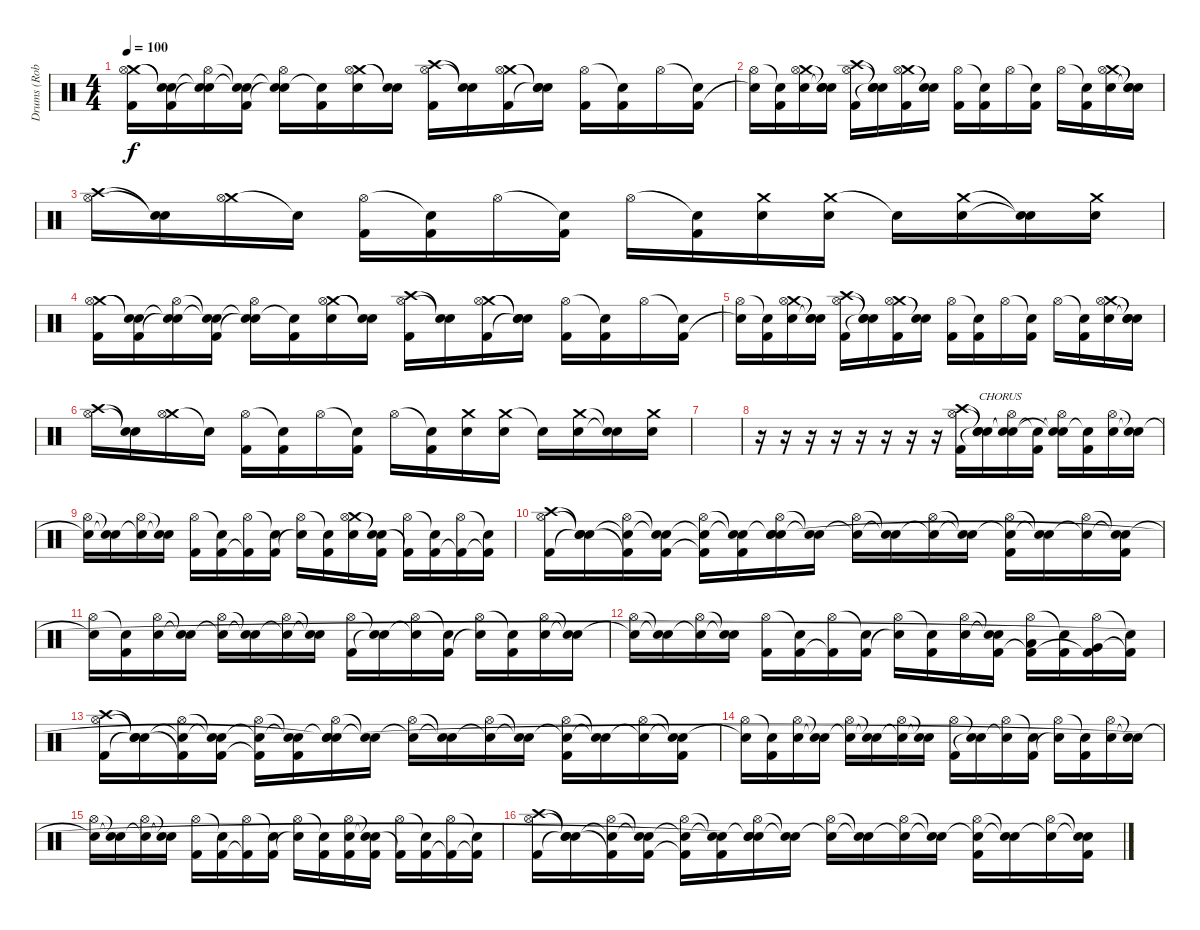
\track ("Drums (Rob Bourdon)" "Drums (Rob") {instrument percussion}
\staff {score}
\articulation defaults
\ts (4 4)
\tempo 100
\clef neutral
\ks c
("Crash medium (hit)" "Hi-Hat (open)" "Kick (hit) 2").16{dy f} ("Snare (hit)"{t} "Snare (hit)"{t} "Kick (hit) 2").16 ("Snare (hit)"{t} "Hi-Hat (open)" "Snare (hit)"{t}).16 ("Snare (hit)"{t} "Snare (hit)"{t} "Kick (hit) 2").16 ("Snare (hit)"{t} "Hi-Hat (open)" "Snare (hit)"{t}).16 ("Snare (hit)"{t} "Kick (hit) 2").16 ("Crash medium (hit)" "Hi-Hat (open)" "Electric Snare (hit)").16 ("Snare (hit)"{t} "Snare (hit)"{t}).16 ("Crash high (hit)" "Hi-Hat (open)" "Kick (hit) 2").16 ("Snare (hit)"{t} "Snare (hit)"{t}).16 ("Crash medium (hit)" "Hi-Hat (open)" "Kick (hit) 2").16 ("Snare (hit)"{t} "Snare (hit)"{t} "Snare (hit)"{t}).16 ("Hi-Hat (open)" "Kick (hit) 2").16 ("Snare (hit)"{t} "Kick (hit) 2").16 "Hi-Hat (open)".16 ("Snare (hit)"{t} "Kick (hit) 2").16 |
("Hi-Hat (open)" "Snare (hit)"{t}).16 ("Snare (hit)"{t} "Kick (hit) 2").16 ("Crash medium (hit)" "Hi-Hat (open)" "Electric Snare (hit)").16 ("Snare (hit)"{t} "Snare (hit)"{t} "Snare (hit)"{t}).16 ("Crash high (hit)" "Hi-Hat (open)" "Kick (hit) 2").16 ("Snare (hit)"{t} "Snare (hit)"{t} "Snare (hit)"{t}).16 ("Crash medium (hit)" "Hi-Hat (open)" "Kick (hit) 2").16 ("Snare (hit)"{t} "Snare (hit)"{t}).16 ("Hi-Hat (open)" "Kick (hit) 2").16 ("Snare (hit)"{t} "Kick (hit) 2").16 "Hi-Hat (open)".16 ("Snare (hit)"{t} "Kick (hit) 2").16 "Hi-Hat (open)".16 ("Snare (hit)"{t} "Kick (hit) 2").16 ("Crash medium (hit)" "Hi-Hat (open)" "Electric Snare (hit)").16 ("Snare (hit)"{t} "Snare (hit)"{t} "Snare (hit)"{t}).16 |
("Crash high (hit)" "Hi-Hat (open)").16 ("Snare (hit)"{t} "Snare (hit)"{t}).16 ("Crash medium (hit)" "Hi-Hat (open)").16 "Snare (hit)"{t}.16 ("Hi-Hat (open)" "Kick (hit) 2").16 ("Snare (hit)"{t} "Kick (hit) 2").16 "Hi-Hat (open)".16 ("Snare (hit)"{t} "Kick (hit) 2").16 "Hi-Hat (open)".16 ("Snare (hit)"{t} "Kick (hit) 2").16 ("Crash medium (hit)" "Electric Snare (hit)").16 ("Crash medium (hit)" "Electric Snare (hit)").16 "Snare (hit)"{t}.16 ("Crash medium (hit)" "Electric Snare (hit)").16 ("Snare (hit)"{t} "Snare (hit)"{t}).16 ("Crash medium (hit)" "Electric Snare (hit)").16 |
("Crash medium (hit)" "Hi-Hat (open)" "Kick (hit) 2").16 ("Snare (hit)"{t} "Snare (hit)"{t} "Kick (hit) 2").16 ("Snare (hit)"{t} "Hi-Hat (open)" "Snare (hit)"{t}).16 ("Snare (hit)"{t} "Snare (hit)"{t} "Kick (hit) 2").16 ("Snare (hit)"{t} "Hi-Hat (open)" "Snare (hit)"{t}).16 ("Snare (hit)"{t} "Kick (hit) 2").16 ("Crash medium (hit)" "Hi-Hat (open)" "Electric Snare (hit)").16 ("Snare (hit)"{t} "Snare (hit)"{t}).16 ("Crash high (hit)" "Hi-Hat (open)" "Kick (hit) 2").16 ("Snare (hit)"{t} "Snare (hit)"{t}).16 ("Crash medium (hit)" "Hi-Hat (open)" "Kick (hit) 2").16 ("Snare (hit)"{t} "Snare (hit)"{t} "Snare (hit)"{t}).16 ("Hi-Hat (open)" "Kick (hit) 2").16 ("Snare (hit)"{t} "Kick (hit) 2").16 "Hi-Hat (open)".16 ("Snare (hit)"{t} "Kick (hit) 2").16 |
("Hi-Hat (open)" "Snare (hit)"{t}).16 ("Snare (hit)"{t} "Kick (hit) 2").16 ("Crash medium (hit)" "Hi-Hat (open)" "Electric Snare (hit)").16 ("Snare (hit)"{t} "Snare (hit)"{t} "Snare (hit)"{t}).16 ("Crash high (hit)" "Hi-Hat (open)" "Kick (hit) 2").16 ("Snare (hit)"{t} "Snare (hit)"{t} "Snare (hit)"{t}).16 ("Crash medium (hit)" "Hi-Hat (open)" "Kick (hit) 2").16 ("Snare (hit)"{t} "Snare (hit)"{t}).16 ("Hi-Hat (open)" "Kick (hit) 2").16 ("Snare (hit)"{t} "Kick (hit) 2").16 "Hi-Hat (open)".16 ("Snare (hit)"{t} "Kick (hit) 2").16 "Hi-Hat (open)".16 ("Snare (hit)"{t} "Kick (hit) 2").16 ("Crash medium (hit)" "Hi-Hat (open)" "Electric Snare (hit)").16 ("Snare (hit)"{t} "Snare (hit)"{t} "Snare (hit)"{t}).16 |
("Crash high (hit)" "Hi-Hat (open)").16 ("Snare (hit)"{t} "Snare (hit)"{t}).16 ("Crash medium (hit)" "Hi-Hat (open)").16 "Snare (hit)"{t}.16 ("Hi-Hat (open)" "Kick (hit) 2").16 ("Snare (hit)"{t} "Kick (hit) 2").16 "Hi-Hat (open)".16 ("Snare (hit)"{t} "Kick (hit) 2").16 "Hi-Hat (open)".16 ("Snare (hit)"{t} "Kick (hit) 2").16 ("Crash medium (hit)" "Electric Snare (hit)").16 ("Crash medium (hit)" "Electric Snare (hit)").16 "Snare (hit)"{t}.16 ("Crash medium (hit)" "Electric Snare (hit)").16 ("Snare (hit)"{t} "Snare (hit)"{t}).16 ("Crash medium (hit)" "Electric Snare (hit)").16 |
|
r.16 r.16 r.16 r.16 r.16 r.16 r.16 r.16{txt "              CHORUS"} ("Crash high (hit)" "Hi-Hat (open)" "Kick (hit) 2").16 ("Snare (hit)"{t} "Snare (hit)"{t} "Snare (hit)"{t}).16 ("Snare (hit)"{t} "Hi-Hat (open)" "Snare (hit)"{t}).16 ("Snare (hit)"{t} "Kick (hit) 2").16 ("Snare (hit)"{t} "Hi-Hat (open)" "Snare (hit)"{t}).16 ("Snare (hit)"{t} "Kick (hit) 2").16 ("Hi-Hat (open)" "Electric Snare (hit)").16 ("Snare (hit)"{t} "Snare (hit)"{t}).16 |
("Hi-Hat (open)" "Snare (hit)"{t}).16 ("Snare (hit)"{t} "Snare (hit)"{t}).16 ("Hi-Hat (open)" "Snare (hit)"{t}).16 ("Snare (hit)"{t} "Snare (hit)"{t}).16 ("Hi-Hat (open)" "Kick (hit) 2").16 ("Snare (hit)"{t} "Kick (hit) 2").16 ("Hi-Hat (open)" "Kick (hit) 2"{t}).16 ("Snare (hit)"{t} "Kick (hit) 2").16 ("Hi-Hat (open)" "Snare (hit)"{t}).16 ("Snare (hit)"{t} "Kick (hit) 2").16 ("Crash medium (hit)" "Hi-Hat (open)" "Electric Snare (hit)").16 ("Snare (hit)"{t} "Snare (hit)"{t} "Kick (hit) 2").16 ("Hi-Hat (open)" "Kick (hit) 2"{t}).16 ("Snare (hit)"{t} "Kick (hit) 2").16 ("Hi-Hat (open)" "Kick (hit) 2"{t}).16 ("Snare (hit)"{t} "Kick (hit) 2"{t}).16 |
("Crash high (hit)" "Hi-Hat (open)" "Kick (hit) 2").16 ("Snare (hit)"{t} "Snare (hit)"{t} "Snare (hit)"{t}).16 ("Snare (hit)"{t} "Hi-Hat (open)" "Kick (hit) 2"{t}).16 ("Snare (hit)"{t} "Snare (hit)"{t} "Kick (hit) 2").16 ("Snare (hit)"{t} "Hi-Hat (open)" "Kick (hit) 2"{t}).16 ("Snare (hit)"{t} "Snare (hit)"{t} "Kick (hit) 2").16 ("Snare (hit)"{t} "Hi-Hat (open)" "Electric Snare (hit)" "Snare (hit)").16 ("Snare (hit)"{t} "Snare (hit)"{t}).16 ("Hi-Hat (open)" "Electric Snare (hit)"{t}).16 ("Snare (hit)"{t} "Snare (hit)"{t}).16 ("Hi-Hat (open)" "Snare (hit)"{t}).16 ("Snare (hit)"{t} "Snare (hit)"{t}).16 ("Hi-Hat (open)" "Snare (hit)"{t} "Kick (hit) 2").16 ("Snare (hit)"{t} "Snare (hit)"{t}).16 ("Hi-Hat (open)" "Snare (hit)"{t}).16 ("Snare (hit)"{t} "Snare (hit)"{t} "Kick (hit) 2").16 |
("Hi-Hat (open)" "Snare (hit)"{t}).16 ("Snare (hit)"{t} "Kick (hit) 2").16 ("Hi-Hat (open)" "Electric Snare (hit)").16 ("Snare (hit)"{t} "Snare (hit)"{t}).16 ("Hi-Hat (open)" "Snare (hit)"{t}).16 ("Snare (hit)"{t} "Snare (hit)"{t}).16 ("Hi-Hat (open)" "Snare (hit)"{t}).16 ("Snare (hit)"{t} "Snare (hit)"{t}).16 ("Hi-Hat (open)" "Kick (hit) 2").16 ("Snare (hit)"{t} "Snare (hit)"{t}).16 ("Hi-Hat (open)" "Snare (hit)"{t}).16 ("Snare (hit)"{t} "Kick (hit) 2").16 ("Hi-Hat (open)" "Snare (hit)"{t}).16 ("Snare (hit)"{t} "Kick (hit) 2").16 ("Hi-Hat (open)" "Electric Snare (hit)").16 ("Snare (hit)"{t} "Snare (hit)"{t}).16 |
("Hi-Hat (open)" "Snare (hit)"{t}).16 ("Snare (hit)"{t} "Snare (hit)"{t}).16 ("Hi-Hat (open)" "Snare (hit)"{t}).16 ("Snare (hit)"{t} "Snare (hit)"{t}).16 ("Hi-Hat (open)" "Kick (hit) 2").16 ("Snare (hit)"{t} "Kick (hit) 2").16 ("Hi-Hat (open)" "Kick (hit) 2"{t}).16 ("Snare (hit)"{t} "Kick (hit) 2").16 ("Hi-Hat (open)" "Snare (hit)"{t}).16 ("Snare (hit)"{t} "Kick (hit) 2").16 ("Hi-Hat (open)" "Electric Snare (hit)").16 ("Snare (hit)"{t} "Snare (hit)"{t} "Kick (hit) 2").16 ("Hi-Hat (open)" "Low Tom (hit)" "Kick (hit) 2"{t}).16 ("Snare (hit)"{t} "Kick (hit) 2").16 ("Hi-Hat (open)" "Very Low Tom (hit)" "Kick (hit) 2"{t}).16 ("Snare (hit)"{t} "Kick (hit) 2"{t}).16 |
("Crash high (hit)" "Hi-Hat (open)" "Kick (hit) 2").16{volume 13} ("Snare (hit)"{t} "Snare (hit)"{t} "Snare (hit)"{t}).16 ("Snare (hit)"{t} "Hi-Hat (open)" "Kick (hit) 2"{t}).16 ("Snare (hit)"{t} "Snare (hit)"{t} "Kick (hit) 2").16 ("Snare (hit)"{t} "Hi-Hat (open)" "Kick (hit) 2"{t}).16 ("Snare (hit)"{t} "Snare (hit)"{t} "Kick (hit) 2").16 ("Snare (hit)"{t} "Hi-Hat (open)" "Electric Snare (hit)" "Snare (hit)"{t}).16 ("Snare (hit)"{t} "Snare (hit)"{t}).16 ("Hi-Hat (open)" "Electric Snare (hit)"{t}).16 ("Snare (hit)"{t} "Snare (hit)"{t}).16 ("Hi-Hat (open)" "Snare (hit)"{t}).16 ("Snare (hit)"{t} "Snare (hit)"{t}).16 ("Hi-Hat (open)" "Snare (hit)"{t} "Kick (hit) 2").16 ("Snare (hit)"{t} "Snare (hit)"{t}).16 ("Hi-Hat (open)" "Snare (hit)"{t}).16 ("Snare (hit)"{t} "Snare (hit)"{t} "Kick (hit) 2").16 |
("Hi-Hat (open)" "Snare (hit)"{t}).16 ("Snare (hit)"{t} "Kick (hit) 2").16 ("Hi-Hat (open)" "Electric Snare (hit)").16 ("Snare (hit)"{t} "Snare (hit)"{t}).16 ("Hi-Hat (open)" "Snare (hit)"{t}).16 ("Snare (hit)"{t} "Snare (hit)"{t}).16 ("Hi-Hat (open)" "Snare (hit)"{t}).16 ("Snare (hit)"{t} "Snare (hit)"{t}).16 ("Hi-Hat (open)" "Kick (hit) 2").16 ("Snare (hit)"{t} "Snare (hit)"{t}).16 ("Hi-Hat (open)" "Snare (hit)"{t}).16 ("Snare (hit)"{t} "Kick (hit) 2").16 ("Hi-Hat (open)" "Snare (hit)"{t}).16 ("Snare (hit)"{t} "Kick (hit) 2").16 ("Hi-Hat (open)" "Electric Snare (hit)").16 ("Snare (hit)"{t} "Snare (hit)"{t}).16 |
("Hi-Hat (open)" "Snare (hit)"{t}).16 ("Snare (hit)"{t} "Snare (hit)"{t}).16 ("Hi-Hat (open)" "Snare (hit)"{t}).16 ("Snare (hit)"{t} "Snare (hit)"{t}).16 ("Hi-Hat (open)" "Kick (hit) 2").16 ("Snare (hit)"{t} "Kick (hit) 2").16 ("Hi-Hat (open)" "Kick (hit) 2"{t}).16 ("Snare (hit)"{t} "Kick (hit) 2").16 ("Hi-Hat (open)" "Snare (hit)"{t}).16 ("Snare (hit)"{t} "Kick (hit) 2").16 ("Hi-Hat (open)" "Electric Snare (hit)" "Kick (hit) 2").16 ("Snare (hit)"{t} "Snare (hit)"{t} "Kick (hit) 2").16 ("Hi-Hat (open)" "Kick (hit) 2"{t}).16 ("Snare (hit)"{t} "Kick (hit) 2").16 ("Hi-Hat (open)" "Kick (hit) 2"{t}).16 ("Snare (hit)"{t} "Kick (hit) 2"{t}).16 |
("Crash high (hit)" "Hi-Hat (open)" "Kick (hit) 2").16 ("Snare (hit)"{t} "Snare (hit)"{t} "Snare (hit)"{t}).16 ("Snare (hit)"{t} "Hi-Hat (open)" "Kick (hit) 2"{t}).16 ("Snare (hit)"{t} "Snare (hit)"{t} "Kick (hit) 2").16 ("Snare (hit)"{t} "Hi-Hat (open)" "Kick (hit) 2"{t}).16 ("Snare (hit)"{t} "Snare (hit)"{t} "Kick (hit) 2").16 ("Snare (hit)"{t} "Hi-Hat (open)" "Electric Snare (hit)" "Snare (hit)"{t}).16 ("Snare (hit)"{t} "Snare (hit)"{t}).16 ("Hi-Hat (open)" "Electric Snare (hit)"{t}).16 ("Snare (hit)"{t} "Snare (hit)"{t}).16 ("Hi-Hat (open)" "Snare (hit)"{t}).16 ("Snare (hit)"{t} "Snare (hit)"{t}).16 ("Hi-Hat (open)" "Snare (hit)"{t} "Kick (hit) 2").16 ("Snare (hit)"{t} "Snare (hit)"{t}).16 ("Hi-Hat (open)" "Snare (hit)"{t}).16 ("Snare (hit)"{t} "Snare (hit)"{t} "Kick (hit) 2").16
